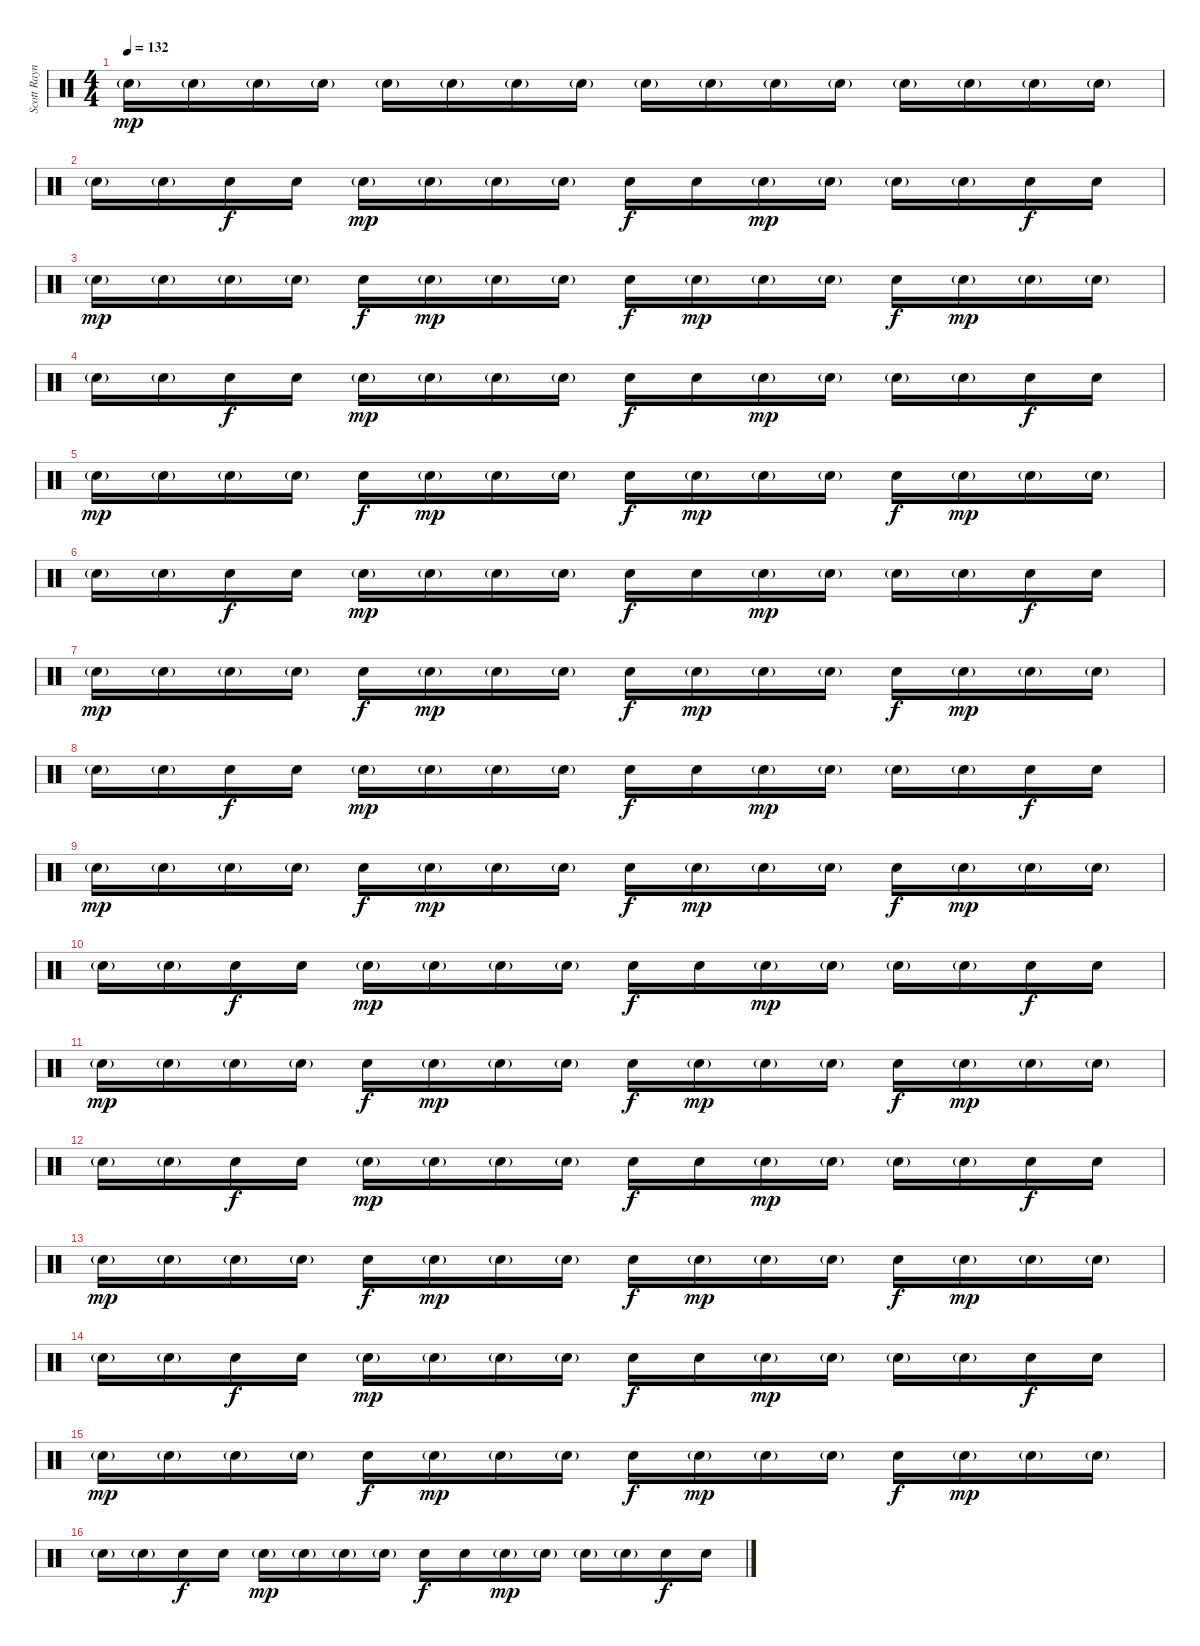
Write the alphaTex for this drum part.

\track ("Scott Raynor" "Scott Rayn") {instrument percussion}
\staff {score}
\articulation defaults
\ts (4 4)
\tempo 132
\clef neutral
\ks c "Snare (hit) 2"{g}.16{dy mp} "Snare (hit) 2"{g}.16 "Snare (hit) 2"{g}.16 "Snare (hit) 2"{g}.16 "Snare (hit) 2"{g}.16 "Snare (hit) 2"{g}.16 "Snare (hit) 2"{g}.16 "Snare (hit) 2"{g}.16 "Snare (hit) 2"{g}.16 "Snare (hit) 2"{g}.16 "Snare (hit) 2"{g}.16 "Snare (hit) 2"{g}.16 "Snare (hit) 2"{g}.16 "Snare (hit) 2"{g}.16 "Snare (hit) 2"{g}.16 "Snare (hit) 2"{g}.16
|
"Snare (hit) 2"{g}.16 "Snare (hit) 2"{g}.16 "Snare (hit) 2".16{dy f} "Snare (hit) 2".16 "Snare (hit) 2"{g}.16{dy mp} "Snare (hit) 2"{g}.16 "Snare (hit) 2"{g}.16 "Snare (hit) 2"{g}.16 "Snare (hit) 2".16{dy f} "Snare (hit) 2".16 "Snare (hit) 2"{g}.16{dy mp} "Snare (hit) 2"{g}.16 "Snare (hit) 2"{g}.16 "Snare (hit) 2"{g}.16 "Snare (hit) 2".16{dy f} "Snare (hit) 2".16 |
"Snare (hit) 2"{g}.16{dy mp} "Snare (hit) 2"{g}.16 "Snare (hit) 2"{g}.16 "Snare (hit) 2"{g}.16 "Snare (hit) 2".16{dy f} "Snare (hit) 2"{g}.16{dy mp} "Snare (hit) 2"{g}.16 "Snare (hit) 2"{g}.16 "Snare (hit) 2".16{dy f} "Snare (hit) 2"{g}.16{dy mp} "Snare (hit) 2"{g}.16 "Snare (hit) 2"{g}.16 "Snare (hit) 2".16{dy f} "Snare (hit) 2"{g}.16{dy mp} "Snare (hit) 2"{g}.16 "Snare (hit) 2"{g}.16 |
"Snare (hit) 2"{g}.16 "Snare (hit) 2"{g}.16 "Snare (hit) 2".16{dy f} "Snare (hit) 2".16 "Snare (hit) 2"{g}.16{dy mp} "Snare (hit) 2"{g}.16 "Snare (hit) 2"{g}.16 "Snare (hit) 2"{g}.16 "Snare (hit) 2".16{dy f} "Snare (hit) 2".16 "Snare (hit) 2"{g}.16{dy mp} "Snare (hit) 2"{g}.16 "Snare (hit) 2"{g}.16 "Snare (hit) 2"{g}.16 "Snare (hit) 2".16{dy f} "Snare (hit) 2".16 |
"Snare (hit) 2"{g}.16{dy mp} "Snare (hit) 2"{g}.16 "Snare (hit) 2"{g}.16 "Snare (hit) 2"{g}.16 "Snare (hit) 2".16{dy f} "Snare (hit) 2"{g}.16{dy mp} "Snare (hit) 2"{g}.16 "Snare (hit) 2"{g}.16 "Snare (hit) 2".16{dy f} "Snare (hit) 2"{g}.16{dy mp} "Snare (hit) 2"{g}.16 "Snare (hit) 2"{g}.16 "Snare (hit) 2".16{dy f} "Snare (hit) 2"{g}.16{dy mp} "Snare (hit) 2"{g}.16 "Snare (hit) 2"{g}.16 |
"Snare (hit) 2"{g}.16 "Snare (hit) 2"{g}.16 "Snare (hit) 2".16{dy f} "Snare (hit) 2".16 "Snare (hit) 2"{g}.16{dy mp} "Snare (hit) 2"{g}.16 "Snare (hit) 2"{g}.16 "Snare (hit) 2"{g}.16 "Snare (hit) 2".16{dy f} "Snare (hit) 2".16 "Snare (hit) 2"{g}.16{dy mp} "Snare (hit) 2"{g}.16 "Snare (hit) 2"{g}.16 "Snare (hit) 2"{g}.16 "Snare (hit) 2".16{dy f} "Snare (hit) 2".16 |
"Snare (hit) 2"{g}.16{dy mp} "Snare (hit) 2"{g}.16 "Snare (hit) 2"{g}.16 "Snare (hit) 2"{g}.16 "Snare (hit) 2".16{dy f} "Snare (hit) 2"{g}.16{dy mp} "Snare (hit) 2"{g}.16 "Snare (hit) 2"{g}.16 "Snare (hit) 2".16{dy f} "Snare (hit) 2"{g}.16{dy mp} "Snare (hit) 2"{g}.16 "Snare (hit) 2"{g}.16 "Snare (hit) 2".16{dy f} "Snare (hit) 2"{g}.16{dy mp} "Snare (hit) 2"{g}.16 "Snare (hit) 2"{g}.16 |
"Snare (hit) 2"{g}.16 "Snare (hit) 2"{g}.16 "Snare (hit) 2".16{dy f} "Snare (hit) 2".16 "Snare (hit) 2"{g}.16{dy mp} "Snare (hit) 2"{g}.16 "Snare (hit) 2"{g}.16 "Snare (hit) 2"{g}.16 "Snare (hit) 2".16{dy f} "Snare (hit) 2".16 "Snare (hit) 2"{g}.16{dy mp} "Snare (hit) 2"{g}.16 "Snare (hit) 2"{g}.16 "Snare (hit) 2"{g}.16 "Snare (hit) 2".16{dy f} "Snare (hit) 2".16 |
"Snare (hit) 2"{g}.16{dy mp} "Snare (hit) 2"{g}.16 "Snare (hit) 2"{g}.16 "Snare (hit) 2"{g}.16 "Snare (hit) 2".16{dy f} "Snare (hit) 2"{g}.16{dy mp} "Snare (hit) 2"{g}.16 "Snare (hit) 2"{g}.16 "Snare (hit) 2".16{dy f} "Snare (hit) 2"{g}.16{dy mp} "Snare (hit) 2"{g}.16 "Snare (hit) 2"{g}.16 "Snare (hit) 2".16{dy f} "Snare (hit) 2"{g}.16{dy mp} "Snare (hit) 2"{g}.16 "Snare (hit) 2"{g}.16 |
"Snare (hit) 2"{g}.16 "Snare (hit) 2"{g}.16 "Snare (hit) 2".16{dy f} "Snare (hit) 2".16 "Snare (hit) 2"{g}.16{dy mp} "Snare (hit) 2"{g}.16 "Snare (hit) 2"{g}.16 "Snare (hit) 2"{g}.16 "Snare (hit) 2".16{dy f} "Snare (hit) 2".16 "Snare (hit) 2"{g}.16{dy mp} "Snare (hit) 2"{g}.16 "Snare (hit) 2"{g}.16 "Snare (hit) 2"{g}.16 "Snare (hit) 2".16{dy f} "Snare (hit) 2".16 |
"Snare (hit) 2"{g}.16{dy mp} "Snare (hit) 2"{g}.16 "Snare (hit) 2"{g}.16 "Snare (hit) 2"{g}.16 "Snare (hit) 2".16{dy f} "Snare (hit) 2"{g}.16{dy mp} "Snare (hit) 2"{g}.16 "Snare (hit) 2"{g}.16 "Snare (hit) 2".16{dy f} "Snare (hit) 2"{g}.16{dy mp} "Snare (hit) 2"{g}.16 "Snare (hit) 2"{g}.16 "Snare (hit) 2".16{dy f} "Snare (hit) 2"{g}.16{dy mp} "Snare (hit) 2"{g}.16 "Snare (hit) 2"{g}.16 |
"Snare (hit) 2"{g}.16 "Snare (hit) 2"{g}.16 "Snare (hit) 2".16{dy f} "Snare (hit) 2".16 "Snare (hit) 2"{g}.16{dy mp} "Snare (hit) 2"{g}.16 "Snare (hit) 2"{g}.16 "Snare (hit) 2"{g}.16 "Snare (hit) 2".16{dy f} "Snare (hit) 2".16 "Snare (hit) 2"{g}.16{dy mp} "Snare (hit) 2"{g}.16 "Snare (hit) 2"{g}.16 "Snare (hit) 2"{g}.16 "Snare (hit) 2".16{dy f} "Snare (hit) 2".16 |
"Snare (hit) 2"{g}.16{dy mp} "Snare (hit) 2"{g}.16 "Snare (hit) 2"{g}.16 "Snare (hit) 2"{g}.16 "Snare (hit) 2".16{dy f} "Snare (hit) 2"{g}.16{dy mp} "Snare (hit) 2"{g}.16 "Snare (hit) 2"{g}.16 "Snare (hit) 2".16{dy f} "Snare (hit) 2"{g}.16{dy mp} "Snare (hit) 2"{g}.16 "Snare (hit) 2"{g}.16 "Snare (hit) 2".16{dy f} "Snare (hit) 2"{g}.16{dy mp} "Snare (hit) 2"{g}.16 "Snare (hit) 2"{g}.16 |
"Snare (hit) 2"{g}.16 "Snare (hit) 2"{g}.16 "Snare (hit) 2".16{dy f} "Snare (hit) 2".16 "Snare (hit) 2"{g}.16{dy mp} "Snare (hit) 2"{g}.16 "Snare (hit) 2"{g}.16 "Snare (hit) 2"{g}.16 "Snare (hit) 2".16{dy f} "Snare (hit) 2".16 "Snare (hit) 2"{g}.16{dy mp} "Snare (hit) 2"{g}.16 "Snare (hit) 2"{g}.16 "Snare (hit) 2"{g}.16 "Snare (hit) 2".16{dy f} "Snare (hit) 2".16 |
"Snare (hit) 2"{g}.16{dy mp} "Snare (hit) 2"{g}.16 "Snare (hit) 2"{g}.16 "Snare (hit) 2"{g}.16 "Snare (hit) 2".16{dy f} "Snare (hit) 2"{g}.16{dy mp} "Snare (hit) 2"{g}.16 "Snare (hit) 2"{g}.16 "Snare (hit) 2".16{dy f} "Snare (hit) 2"{g}.16{dy mp} "Snare (hit) 2"{g}.16 "Snare (hit) 2"{g}.16 "Snare (hit) 2".16{dy f} "Snare (hit) 2"{g}.16{dy mp} "Snare (hit) 2"{g}.16 "Snare (hit) 2"{g}.16 |
"Snare (hit) 2"{g}.16 "Snare (hit) 2"{g}.16 "Snare (hit) 2".16{dy f} "Snare (hit) 2".16 "Snare (hit) 2"{g}.16{dy mp} "Snare (hit) 2"{g}.16 "Snare (hit) 2"{g}.16 "Snare (hit) 2"{g}.16 "Snare (hit) 2".16{dy f} "Snare (hit) 2".16 "Snare (hit) 2"{g}.16{dy mp} "Snare (hit) 2"{g}.16 "Snare (hit) 2"{g}.16 "Snare (hit) 2"{g}.16 "Snare (hit) 2".16{dy f} "Snare (hit) 2".16
